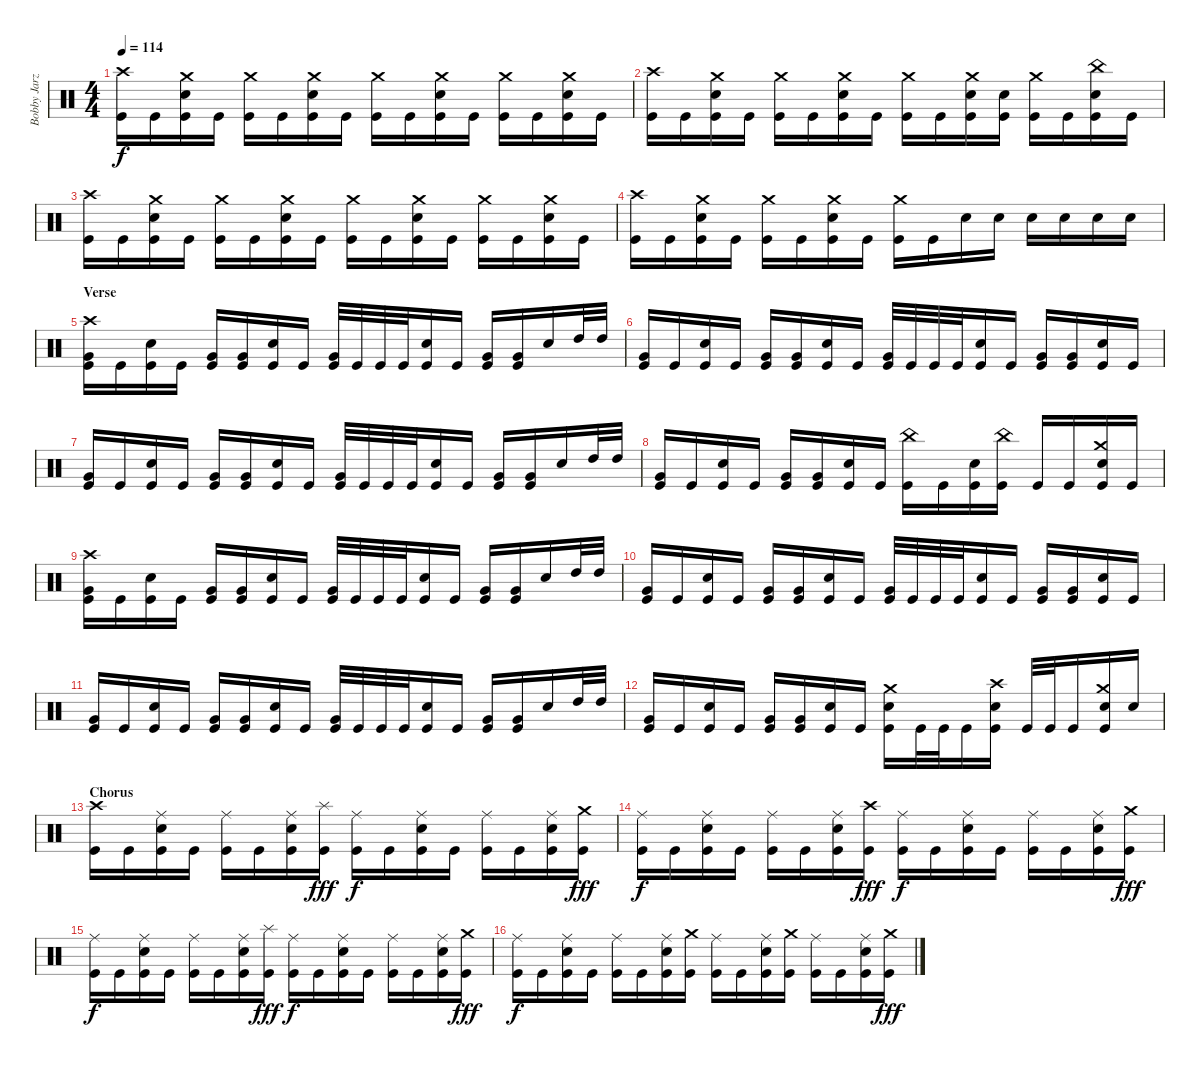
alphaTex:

\track ("Bobby Jarzombek" "Bobby Jarz") {instrument percussion}
\staff {score}
\articulation defaults
\ts (4 4)
\tempo 114
\clef neutral
\ks c
("Crash high (hit)" "Kick (hit)").16{dy f} "Kick (hit)".16 ("Crash medium (hit)" "Electric Snare (hit)" "Kick (hit)").16 "Kick (hit)".16 ("Crash medium (hit)" "Kick (hit)").16 "Kick (hit)".16 ("Crash medium (hit)" "Electric Snare (hit)" "Kick (hit)").16 "Kick (hit)".16 ("Crash medium (hit)" "Kick (hit)").16 "Kick (hit)".16 ("Crash medium (hit)" "Electric Snare (hit)" "Kick (hit)").16 "Kick (hit)".16 ("Crash medium (hit)" "Kick (hit)").16 "Kick (hit)".16 ("Crash medium (hit)" "Electric Snare (hit)" "Kick (hit)").16 "Kick (hit)".16 |
("Crash high (hit)" "Kick (hit)").16 "Kick (hit)".16 ("Crash medium (hit)" "Electric Snare (hit)" "Kick (hit)").16 "Kick (hit)".16 ("Crash medium (hit)" "Kick (hit)").16 "Kick (hit)".16 ("Crash medium (hit)" "Electric Snare (hit)" "Kick (hit)").16 "Kick (hit)".16 ("Crash medium (hit)" "Kick (hit)").16 "Kick (hit)".16 ("Crash medium (hit)" "Electric Snare (hit)" "Kick (hit)").16 ("Electric Snare (hit)" "Kick (hit)").16 ("Crash medium (hit)" "Kick (hit)").16 "Kick (hit)".16 ("China (hit)" "Electric Snare (hit)" "Kick (hit)").16 "Kick (hit)".16 |
("Crash high (hit)" "Kick (hit)").16 "Kick (hit)".16 ("Crash medium (hit)" "Electric Snare (hit)" "Kick (hit)").16 "Kick (hit)".16 ("Crash medium (hit)" "Kick (hit)").16 "Kick (hit)".16 ("Crash medium (hit)" "Electric Snare (hit)" "Kick (hit)").16 "Kick (hit)".16 ("Crash medium (hit)" "Kick (hit)").16 "Kick (hit)".16 ("Crash medium (hit)" "Electric Snare (hit)" "Kick (hit)").16 "Kick (hit)".16 ("Crash medium (hit)" "Kick (hit)").16 "Kick (hit)".16 ("Crash medium (hit)" "Electric Snare (hit)" "Kick (hit)").16 "Kick (hit)".16 |
("Crash high (hit)" "Kick (hit)").16 "Kick (hit)".16 ("Crash medium (hit)" "Electric Snare (hit)" "Kick (hit)").16 "Kick (hit)".16 ("Crash medium (hit)" "Kick (hit)").16 "Kick (hit)".16 ("Crash medium (hit)" "Electric Snare (hit)" "Kick (hit)").16 "Kick (hit)".16 ("Crash medium (hit)" "Kick (hit)").16 "Kick (hit)".16 "Electric Snare (hit)".16 "Electric Snare (hit)".16 "Electric Snare (hit)".16 "Electric Snare (hit)".16 "Electric Snare (hit)".16 "Electric Snare (hit)".16 |
\section ("" "Verse")
("Crash high (hit)" "Very Low Tom (hit)" "Kick (hit)").16 "Kick (hit)".16 ("Electric Snare (hit)" "Kick (hit)").16 "Kick (hit)".16 ("Very Low Tom (hit)" "Kick (hit)").16 ("Very Low Tom (hit)" "Kick (hit)").16 ("Electric Snare (hit)" "Kick (hit)").16 "Kick (hit)".16 ("Very Low Tom (hit)" "Kick (hit)").32 "Kick (hit)".32 "Kick (hit)".32 "Kick (hit)".32 ("Electric Snare (hit)" "Kick (hit)").16 "Kick (hit)".16 ("Very Low Tom (hit)" "Kick (hit)").16 ("Very Low Tom (hit)" "Kick (hit)").16 "Electric Snare (hit)".16 "High Tom (hit)".32 "High Tom (hit)".32 |
("Very Low Tom (hit)" "Kick (hit)").16 "Kick (hit)".16 ("Electric Snare (hit)" "Kick (hit)").16 "Kick (hit)".16 ("Very Low Tom (hit)" "Kick (hit)").16 ("Very Low Tom (hit)" "Kick (hit)").16 ("Electric Snare (hit)" "Kick (hit)").16 "Kick (hit)".16 ("Very Low Tom (hit)" "Kick (hit)").32 "Kick (hit)".32 "Kick (hit)".32 "Kick (hit)".32 ("Electric Snare (hit)" "Kick (hit)").16 "Kick (hit)".16 ("Very Low Tom (hit)" "Kick (hit)").16 ("Very Low Tom (hit)" "Kick (hit)").16 ("Electric Snare (hit)" "Kick (hit)").16 "Kick (hit)".16 |
("Very Low Tom (hit)" "Kick (hit)").16 "Kick (hit)".16 ("Electric Snare (hit)" "Kick (hit)").16 "Kick (hit)".16 ("Very Low Tom (hit)" "Kick (hit)").16 ("Very Low Tom (hit)" "Kick (hit)").16 ("Electric Snare (hit)" "Kick (hit)").16 "Kick (hit)".16 ("Very Low Tom (hit)" "Kick (hit)").32 "Kick (hit)".32 "Kick (hit)".32 "Kick (hit)".32 ("Electric Snare (hit)" "Kick (hit)").16 "Kick (hit)".16 ("Very Low Tom (hit)" "Kick (hit)").16 ("Very Low Tom (hit)" "Kick (hit)").16 "Electric Snare (hit)".16 "High Tom (hit)".32 "High Tom (hit)".32 |
("Very Low Tom (hit)" "Kick (hit)").16 "Kick (hit)".16 ("Electric Snare (hit)" "Kick (hit)").16 "Kick (hit)".16 ("Very Low Tom (hit)" "Kick (hit)").16 ("Very Low Tom (hit)" "Kick (hit)").16 ("Electric Snare (hit)" "Kick (hit)").16 "Kick (hit)".16 ("China (hit)" "Kick (hit)").16 "Kick (hit)".16 ("Electric Snare (hit)" "Kick (hit)").16 ("China (hit)" "Kick (hit)").16 "Kick (hit)".16 "Kick (hit)".16 ("Crash medium (hit)" "Electric Snare (hit)" "Kick (hit)").16 "Kick (hit)".16 |
("Crash high (hit)" "Very Low Tom (hit)" "Kick (hit)").16 "Kick (hit)".16 ("Electric Snare (hit)" "Kick (hit)").16 "Kick (hit)".16 ("Very Low Tom (hit)" "Kick (hit)").16 ("Very Low Tom (hit)" "Kick (hit)").16 ("Electric Snare (hit)" "Kick (hit)").16 "Kick (hit)".16 ("Very Low Tom (hit)" "Kick (hit)").32 "Kick (hit)".32 "Kick (hit)".32 "Kick (hit)".32 ("Electric Snare (hit)" "Kick (hit)").16 "Kick (hit)".16 ("Very Low Tom (hit)" "Kick (hit)").16 ("Very Low Tom (hit)" "Kick (hit)").16 "Electric Snare (hit)".16 "High Tom (hit)".32 "High Tom (hit)".32 |
("Very Low Tom (hit)" "Kick (hit)").16 "Kick (hit)".16 ("Electric Snare (hit)" "Kick (hit)").16 "Kick (hit)".16 ("Very Low Tom (hit)" "Kick (hit)").16 ("Very Low Tom (hit)" "Kick (hit)").16 ("Electric Snare (hit)" "Kick (hit)").16 "Kick (hit)".16 ("Very Low Tom (hit)" "Kick (hit)").32 "Kick (hit)".32 "Kick (hit)".32 "Kick (hit)".32 ("Electric Snare (hit)" "Kick (hit)").16 "Kick (hit)".16 ("Very Low Tom (hit)" "Kick (hit)").16 ("Very Low Tom (hit)" "Kick (hit)").16 ("Electric Snare (hit)" "Kick (hit)").16 "Kick (hit)".16 |
("Very Low Tom (hit)" "Kick (hit)").16 "Kick (hit)".16 ("Electric Snare (hit)" "Kick (hit)").16 "Kick (hit)".16 ("Very Low Tom (hit)" "Kick (hit)").16 ("Very Low Tom (hit)" "Kick (hit)").16 ("Electric Snare (hit)" "Kick (hit)").16 "Kick (hit)".16 ("Very Low Tom (hit)" "Kick (hit)").32 "Kick (hit)".32 "Kick (hit)".32 "Kick (hit)".32 ("Electric Snare (hit)" "Kick (hit)").16 "Kick (hit)".16 ("Very Low Tom (hit)" "Kick (hit)").16 ("Very Low Tom (hit)" "Kick (hit)").16 "Electric Snare (hit)".16 "High Tom (hit)".32 "High Tom (hit)".32 |
("Very Low Tom (hit)" "Kick (hit)").16 "Kick (hit)".16 ("Electric Snare (hit)" "Kick (hit)").16 "Kick (hit)".16 ("Very Low Tom (hit)" "Kick (hit)").16 ("Very Low Tom (hit)" "Kick (hit)").16 ("Electric Snare (hit)" "Kick (hit)").16 "Kick (hit)".16 ("Crash medium (hit)" "Electric Snare (hit)" "Kick (hit)").16 "Kick (hit)".32 "Kick (hit)".32 "Kick (hit)".16 ("Crash high (hit)" "Electric Snare (hit)" "Kick (hit)").16 "Kick (hit)".32 "Kick (hit)".32 "Kick (hit)".16 ("Crash medium (hit)" "Electric Snare (hit)" "Kick (hit)").16 "Electric Snare (hit)".16 |
\section ("" "Chorus")
("Crash high (hit)" "Kick (hit)").16 "Kick (hit)".16 ("Ride (middle)" "Electric Snare (hit)" "Kick (hit)").16 "Kick (hit)".16 ("Ride (middle)" "Kick (hit)").16 "Kick (hit)".16 ("Ride (middle)" "Electric Snare (hit)" "Kick (hit)").16 ("Splash (hit)" "Kick (hit)").16{dy fff} ("Ride (middle)" "Kick (hit)").16{dy f} "Kick (hit)".16 ("Ride (middle)" "Electric Snare (hit)" "Kick (hit)").16 "Kick (hit)".16 ("Ride (middle)" "Kick (hit)").16 "Kick (hit)".16 ("Ride (middle)" "Electric Snare (hit)" "Kick (hit)").16 ("Crash medium (hit)" "Kick (hit)").16{dy fff} |
("Ride (middle)" "Kick (hit)").16{dy f} "Kick (hit)".16 ("Ride (middle)" "Electric Snare (hit)" "Kick (hit)").16 "Kick (hit)".16 ("Ride (middle)" "Kick (hit)").16 "Kick (hit)".16 ("Ride (middle)" "Electric Snare (hit)" "Kick (hit)").16 ("Crash high (hit)" "Kick (hit)").16{dy fff} ("Ride (middle)" "Kick (hit)").16{dy f} "Kick (hit)".16 ("Ride (middle)" "Electric Snare (hit)" "Kick (hit)").16 "Kick (hit)".16 ("Ride (middle)" "Kick (hit)").16 "Kick (hit)".16 ("Ride (middle)" "Electric Snare (hit)" "Kick (hit)").16 ("Crash medium (hit)" "Kick (hit)").16{dy fff} |
("Ride (middle)" "Kick (hit)").16{dy f} "Kick (hit)".16 ("Ride (middle)" "Electric Snare (hit)" "Kick (hit)").16 "Kick (hit)".16 ("Ride (middle)" "Kick (hit)").16 "Kick (hit)".16 ("Ride (middle)" "Electric Snare (hit)" "Kick (hit)").16 ("Splash (hit)" "Kick (hit)").16{dy fff} ("Ride (middle)" "Kick (hit)").16{dy f} "Kick (hit)".16 ("Ride (middle)" "Electric Snare (hit)" "Kick (hit)").16 "Kick (hit)".16 ("Ride (middle)" "Kick (hit)").16 "Kick (hit)".16 ("Ride (middle)" "Electric Snare (hit)" "Kick (hit)").16 ("Crash medium (hit)" "Kick (hit)").16{dy fff} |
("Ride (middle)" "Kick (hit)").16{dy f} "Kick (hit)".16 ("Ride (middle)" "Electric Snare (hit)" "Kick (hit)").16 "Kick (hit)".16 ("Ride (middle)" "Kick (hit)").16 "Kick (hit)".16 ("Ride (middle)" "Electric Snare (hit)" "Kick (hit)").16 ("Crash medium (hit)" "Kick (hit)").16 ("Ride (middle)" "Kick (hit)").16 "Kick (hit)".16 ("Ride (middle)" "Electric Snare (hit)" "Kick (hit)").16 ("Crash medium (hit)" "Kick (hit)").16 ("Ride (middle)" "Kick (hit)").16 "Kick (hit)".16 ("Ride (middle)" "Electric Snare (hit)" "Kick (hit)").16 ("Crash medium (hit)" "Kick (hit)").16{dy fff}
